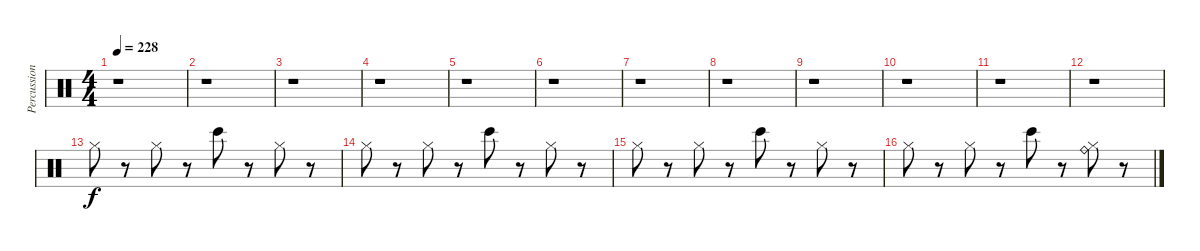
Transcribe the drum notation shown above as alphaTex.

\track ("Percussions" "Percussion") {instrument percussion}
\staff {score}
\articulation defaults
\ts (4 4)
\tempo 228
\clef neutral
\ks c
r.1{dy f} |
r.1 |
r.1 |
r.1 |
r.1 |
r.1 |
r.1 |
r.1 |
r.1 |
r.1 |
r.1 |
r.1 |
"Hi-Hat (closed)".8 r.8 "Hi-Hat (closed)".8 r.8 "Bongo High (hit)".8 r.8 "Hi-Hat (closed)".8 r.8 |
"Hi-Hat (closed)".8 r.8 "Hi-Hat (closed)".8 r.8 "Bongo High (hit)".8 r.8 "Hi-Hat (closed)".8 r.8 |
"Hi-Hat (closed)".8 r.8 "Hi-Hat (closed)".8 r.8 "Bongo High (hit)".8 r.8 "Hi-Hat (closed)".8 r.8 |
"Hi-Hat (closed)".8 r.8 "Hi-Hat (closed)".8 r.8 "Bongo High (hit)".8 r.8 ("Ride (bell)" "Hi-Hat (closed)").8 r.8
